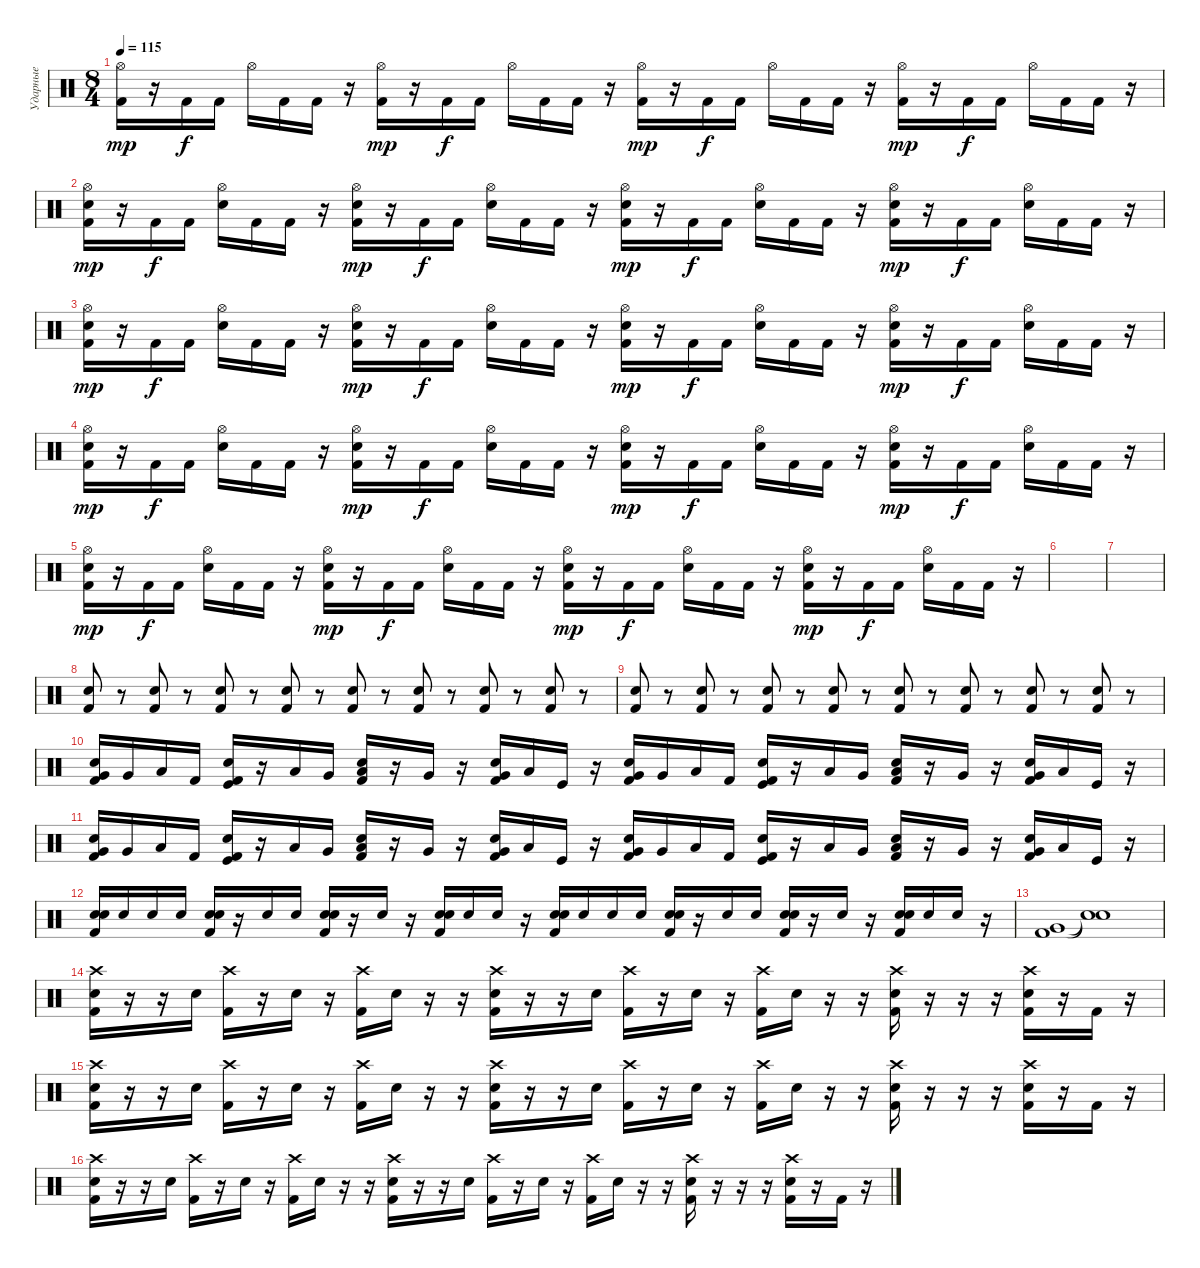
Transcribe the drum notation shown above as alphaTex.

\track ("Ударные" "Ударные") {instrument percussion}
\staff {score}
\articulation defaults
\ts (8 4)
\tempo 115
\clef neutral
\ks c
("Hi-Hat (open)" "Kick (hit) 2").16{dy mp} r.16 "Kick (hit) 2".16{dy f} "Kick (hit) 2".16 "Hi-Hat (open)".16 "Kick (hit) 2".16 "Kick (hit) 2".16 r.16 ("Hi-Hat (open)" "Kick (hit) 2").16{dy mp} r.16 "Kick (hit) 2".16{dy f} "Kick (hit) 2".16 "Hi-Hat (open)".16 "Kick (hit) 2".16 "Kick (hit) 2".16 r.16 ("Hi-Hat (open)" "Kick (hit) 2").16{dy mp} r.16 "Kick (hit) 2".16{dy f} "Kick (hit) 2".16 "Hi-Hat (open)".16 "Kick (hit) 2".16 "Kick (hit) 2".16 r.16 ("Hi-Hat (open)" "Kick (hit) 2").16{dy mp} r.16 "Kick (hit) 2".16{dy f} "Kick (hit) 2".16 "Hi-Hat (open)".16 "Kick (hit) 2".16 "Kick (hit) 2".16 r.16 |
("Hi-Hat (open)" "Snare (hit) 2" "Kick (hit) 2").16{dy mp} r.16 "Kick (hit) 2".16{dy f} "Kick (hit) 2".16 ("Hi-Hat (open)" "Snare (hit) 2").16 "Kick (hit) 2".16 "Kick (hit) 2".16 r.16 ("Hi-Hat (open)" "Snare (hit) 2" "Kick (hit) 2").16{dy mp} r.16 "Kick (hit) 2".16{dy f} "Kick (hit) 2".16 ("Hi-Hat (open)" "Snare (hit) 2").16 "Kick (hit) 2".16 "Kick (hit) 2".16 r.16 ("Hi-Hat (open)" "Snare (hit) 2" "Kick (hit) 2").16{dy mp} r.16 "Kick (hit) 2".16{dy f} "Kick (hit) 2".16 ("Hi-Hat (open)" "Snare (hit) 2").16 "Kick (hit) 2".16 "Kick (hit) 2".16 r.16 ("Hi-Hat (open)" "Snare (hit) 2" "Kick (hit) 2").16{dy mp} r.16 "Kick (hit) 2".16{dy f} "Kick (hit) 2".16 ("Hi-Hat (open)" "Snare (hit) 2").16 "Kick (hit) 2".16 "Kick (hit) 2".16 r.16 |
("Hi-Hat (open)" "Snare (hit) 2" "Kick (hit) 2").16{dy mp} r.16 "Kick (hit) 2".16{dy f} "Kick (hit) 2".16 ("Hi-Hat (open)" "Snare (hit) 2").16 "Kick (hit) 2".16 "Kick (hit) 2".16 r.16 ("Hi-Hat (open)" "Snare (hit) 2" "Kick (hit) 2").16{dy mp} r.16 "Kick (hit) 2".16{dy f} "Kick (hit) 2".16 ("Hi-Hat (open)" "Snare (hit) 2").16 "Kick (hit) 2".16 "Kick (hit) 2".16 r.16 ("Hi-Hat (open)" "Snare (hit) 2" "Kick (hit) 2").16{dy mp} r.16 "Kick (hit) 2".16{dy f} "Kick (hit) 2".16 ("Hi-Hat (open)" "Snare (hit) 2").16 "Kick (hit) 2".16 "Kick (hit) 2".16 r.16 ("Hi-Hat (open)" "Snare (hit) 2" "Kick (hit) 2").16{dy mp} r.16 "Kick (hit) 2".16{dy f} "Kick (hit) 2".16 ("Hi-Hat (open)" "Snare (hit) 2").16 "Kick (hit) 2".16 "Kick (hit) 2".16 r.16 |
("Hi-Hat (open)" "Snare (hit) 2" "Kick (hit) 2").16{dy mp} r.16 "Kick (hit) 2".16{dy f} "Kick (hit) 2".16 ("Hi-Hat (open)" "Snare (hit) 2").16 "Kick (hit) 2".16 "Kick (hit) 2".16 r.16 ("Hi-Hat (open)" "Snare (hit) 2" "Kick (hit) 2").16{dy mp} r.16 "Kick (hit) 2".16{dy f} "Kick (hit) 2".16 ("Hi-Hat (open)" "Snare (hit) 2").16 "Kick (hit) 2".16 "Kick (hit) 2".16 r.16 ("Hi-Hat (open)" "Snare (hit) 2" "Kick (hit) 2").16{dy mp} r.16 "Kick (hit) 2".16{dy f} "Kick (hit) 2".16 ("Hi-Hat (open)" "Snare (hit) 2").16 "Kick (hit) 2".16 "Kick (hit) 2".16 r.16 ("Hi-Hat (open)" "Snare (hit) 2" "Kick (hit) 2").16{dy mp} r.16 "Kick (hit) 2".16{dy f} "Kick (hit) 2".16 ("Hi-Hat (open)" "Snare (hit) 2").16 "Kick (hit) 2".16 "Kick (hit) 2".16 r.16 |
("Hi-Hat (open)" "Snare (hit) 2" "Kick (hit) 2").16{dy mp} r.16 "Kick (hit) 2".16{dy f} "Kick (hit) 2".16 ("Hi-Hat (open)" "Snare (hit) 2").16 "Kick (hit) 2".16 "Kick (hit) 2".16 r.16 ("Hi-Hat (open)" "Snare (hit) 2" "Kick (hit) 2").16{dy mp} r.16 "Kick (hit) 2".16{dy f} "Kick (hit) 2".16 ("Hi-Hat (open)" "Snare (hit) 2").16 "Kick (hit) 2".16 "Kick (hit) 2".16 r.16 ("Hi-Hat (open)" "Snare (hit) 2" "Kick (hit) 2").16{dy mp} r.16 "Kick (hit) 2".16{dy f} "Kick (hit) 2".16 ("Hi-Hat (open)" "Snare (hit) 2").16 "Kick (hit) 2".16 "Kick (hit) 2".16 r.16 ("Hi-Hat (open)" "Snare (hit) 2" "Kick (hit) 2").16{dy mp} r.16 "Kick (hit) 2".16{dy f} "Kick (hit) 2".16 ("Hi-Hat (open)" "Snare (hit) 2").16 "Kick (hit) 2".16 "Kick (hit) 2".16 r.16 |
|
|
("Hand Clap (hit)" "Kick (hit) 2").8 r.8 ("Hand Clap (hit)" "Kick (hit) 2").8 r.8 ("Hand Clap (hit)" "Kick (hit) 2").8 r.8 ("Hand Clap (hit)" "Kick (hit) 2").8 r.8 ("Hand Clap (hit)" "Kick (hit) 2").8 r.8 ("Hand Clap (hit)" "Kick (hit) 2").8 r.8 ("Hand Clap (hit)" "Kick (hit) 2").8 r.8 ("Hand Clap (hit)" "Kick (hit) 2").8 r.8 |
("Hand Clap (hit)" "Kick (hit) 2").8 r.8 ("Hand Clap (hit)" "Kick (hit) 2").8 r.8 ("Hand Clap (hit)" "Kick (hit) 2").8 r.8 ("Hand Clap (hit)" "Kick (hit) 2").8 r.8 ("Hand Clap (hit)" "Kick (hit) 2").8 r.8 ("Hand Clap (hit)" "Kick (hit) 2").8 r.8 ("Hand Clap (hit)" "Kick (hit) 2").8 r.8 ("Hand Clap (hit)" "Kick (hit) 2").8 r.8 |
("Hand Clap (hit)" "Very Low Tom (hit)" "Kick (hit) 2").16 "Very Low Tom (hit)".16 "Low Floor Tom (hit)".16 "Kick (hit) 2".16 ("Hand Clap (hit)" "Kick (hit)" "Kick (hit) 2").16 r.16 "Low Tom (hit)".16 "Very Low Tom (hit)".16 ("Hand Clap (hit)" "Low Floor Tom (hit)" "Kick (hit) 2").16 r.16 "Very Low Tom (hit)".16 r.16 ("Hand Clap (hit)" "Very Low Tom (hit)" "Kick (hit) 2").16 "Low Floor Tom (hit)".16 "Kick (hit)".16 r.16 ("Hand Clap (hit)" "Very Low Tom (hit)" "Kick (hit) 2").16 "Very Low Tom (hit)".16 "Low Floor Tom (hit)".16 "Kick (hit) 2".16 ("Hand Clap (hit)" "Kick (hit)" "Kick (hit) 2").16 r.16 "Low Tom (hit)".16 "Very Low Tom (hit)".16 ("Hand Clap (hit)" "Low Floor Tom (hit)" "Kick (hit) 2").16 r.16 "Very Low Tom (hit)".16 r.16 ("Hand Clap (hit)" "Very Low Tom (hit)" "Kick (hit) 2").16 "Low Floor Tom (hit)".16 "Kick (hit)".16 r.16 |
("Hand Clap (hit)" "Very Low Tom (hit)" "Kick (hit) 2").16 "Very Low Tom (hit)".16 "Low Floor Tom (hit)".16 "Kick (hit) 2".16 ("Hand Clap (hit)" "Kick (hit)" "Kick (hit) 2").16 r.16 "Low Tom (hit)".16 "Very Low Tom (hit)".16 ("Hand Clap (hit)" "Low Floor Tom (hit)" "Kick (hit) 2").16 r.16 "Very Low Tom (hit)".16 r.16 ("Hand Clap (hit)" "Very Low Tom (hit)" "Kick (hit) 2").16 "Low Floor Tom (hit)".16 "Kick (hit)".16 r.16 ("Hand Clap (hit)" "Very Low Tom (hit)" "Kick (hit) 2").16 "Very Low Tom (hit)".16 "Low Floor Tom (hit)".16 "Kick (hit) 2".16 ("Hand Clap (hit)" "Kick (hit)" "Kick (hit) 2").16 r.16 "Low Tom (hit)".16 "Very Low Tom (hit)".16 ("Hand Clap (hit)" "Low Floor Tom (hit)" "Kick (hit) 2").16 r.16 "Very Low Tom (hit)".16 r.16 ("Hand Clap (hit)" "Very Low Tom (hit)" "Kick (hit) 2").16 "Low Floor Tom (hit)".16 "Kick (hit)".16 r.16 |
("Hand Clap (hit)" "Snare (hit) 2" "Kick (hit) 2").16 "Snare (hit) 2".16 "Snare (hit) 2".16 "Snare (hit) 2".16 ("Hand Clap (hit)" "Snare (hit) 2" "Kick (hit) 2").16 r.16 "Snare (hit) 2".16 "Snare (hit) 2".16 ("Hand Clap (hit)" "Snare (hit) 2" "Kick (hit) 2").16 r.16 "Snare (hit) 2".16 r.16 ("Hand Clap (hit)" "Snare (hit) 2" "Kick (hit) 2").16 "Snare (hit) 2".16 "Snare (hit) 2".16 r.16 ("Hand Clap (hit)" "Snare (hit) 2" "Kick (hit) 2").16 "Snare (hit) 2".16 "Snare (hit) 2".16 "Snare (hit) 2".16 ("Hand Clap (hit)" "Snare (hit) 2" "Kick (hit) 2").16 r.16 "Snare (hit) 2".16 "Snare (hit) 2".16 ("Hand Clap (hit)" "Snare (hit) 2" "Kick (hit) 2").16 r.16 "Snare (hit) 2".16 r.16 ("Hand Clap (hit)" "Snare (hit) 2" "Kick (hit) 2").16 "Snare (hit) 2".16 "Snare (hit) 2".16 r.16 |
("Very Low Tom (hit)" "Kick (hit) 2").1 ("Snare (hit)"{t} "Snare (hit)"{t}).1 |
("Crash high (hit)" "Kick (hit) 2" "Snare (hit) 2").16 r.16 r.16 "Snare (hit) 2".16 ("Crash high (hit)" "Kick (hit) 2").16 r.16 "Snare (hit) 2".16 r.16 ("Crash high (hit)" "Kick (hit) 2").16 "Snare (hit) 2".16 r.16 r.16 ("Crash high (hit)" "Kick (hit) 2" "Snare (hit) 2").16 r.16 r.16 "Snare (hit) 2".16 ("Crash high (hit)" "Kick (hit) 2").16 r.16 "Snare (hit) 2".16 r.16 ("Crash high (hit)" "Kick (hit) 2").16 "Snare (hit) 2".16 r.16 r.16 ("Crash high (hit)" "Kick (hit) 2" "Snare (hit) 2").16 r.16 r.16 r.16 ("Crash high (hit)" "Kick (hit) 2" "Snare (hit) 2").16 r.16 "Kick (hit) 2".16 r.16 |
("Crash high (hit)" "Kick (hit) 2" "Snare (hit) 2").16 r.16 r.16 "Snare (hit) 2".16 ("Crash high (hit)" "Kick (hit) 2").16 r.16 "Snare (hit) 2".16 r.16 ("Crash high (hit)" "Kick (hit) 2").16 "Snare (hit) 2".16 r.16 r.16 ("Crash high (hit)" "Kick (hit) 2" "Snare (hit) 2").16 r.16 r.16 "Snare (hit) 2".16 ("Crash high (hit)" "Kick (hit) 2").16 r.16 "Snare (hit) 2".16 r.16 ("Crash high (hit)" "Kick (hit) 2").16 "Snare (hit) 2".16 r.16 r.16 ("Crash high (hit)" "Kick (hit) 2" "Snare (hit) 2").16 r.16 r.16 r.16 ("Crash high (hit)" "Kick (hit) 2" "Snare (hit) 2").16 r.16 "Kick (hit) 2".16 r.16 |
("Crash high (hit)" "Kick (hit) 2" "Snare (hit) 2").16 r.16 r.16 "Snare (hit) 2".16 ("Crash high (hit)" "Kick (hit) 2").16 r.16 "Snare (hit) 2".16 r.16 ("Crash high (hit)" "Kick (hit) 2").16 "Snare (hit) 2".16 r.16 r.16 ("Crash high (hit)" "Kick (hit) 2" "Snare (hit) 2").16 r.16 r.16 "Snare (hit) 2".16 ("Crash high (hit)" "Kick (hit) 2").16 r.16 "Snare (hit) 2".16 r.16 ("Crash high (hit)" "Kick (hit) 2").16 "Snare (hit) 2".16 r.16 r.16 ("Crash high (hit)" "Kick (hit) 2" "Snare (hit) 2").16 r.16 r.16 r.16 ("Crash high (hit)" "Kick (hit) 2" "Snare (hit) 2").16 r.16 "Kick (hit) 2".16 r.16
